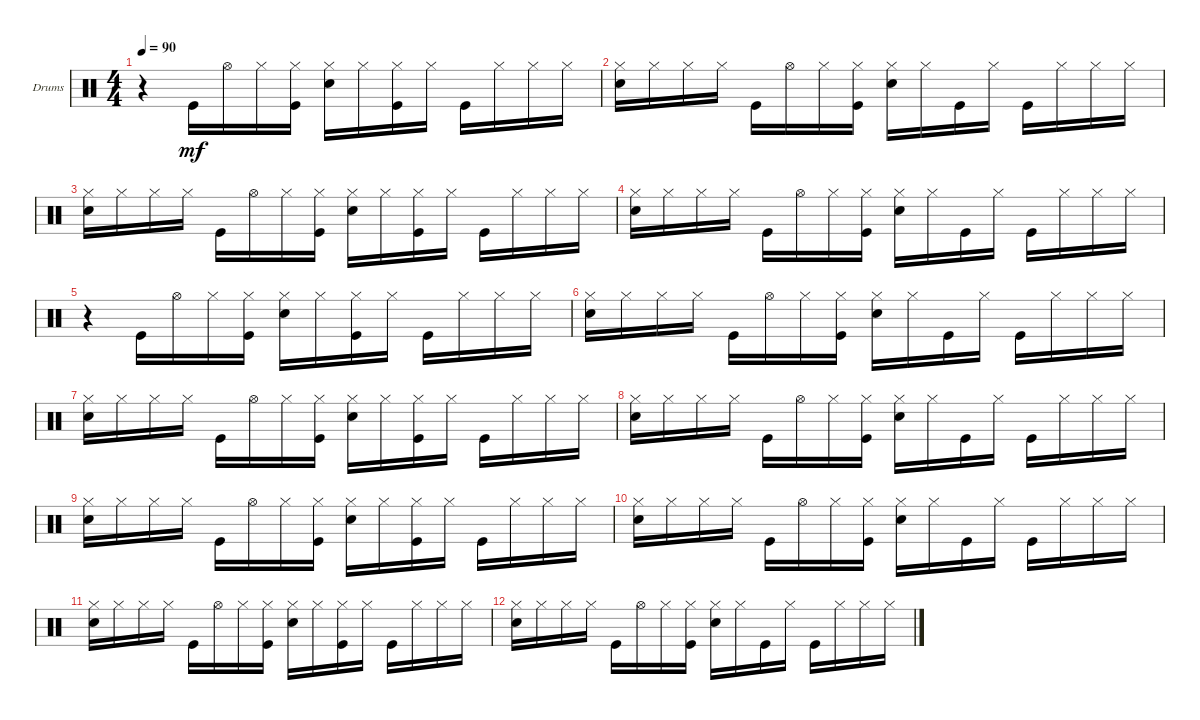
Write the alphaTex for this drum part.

\defaultSystemsLayout 4
\bracketExtendMode groupsimilarinstruments
\firstSystemTrackNameOrientation horizontal
\otherSystemsTrackNameOrientation horizontal
\track ("Drumkit" "Drums") {instrument percussion}
\staff {score}
\articulation defaults
\ts (4 4)
\tempo 90
\clef neutral
\scale
0.474178
\ks c
r.4{dy mf} "Kick (hit)".16 "Hi-Hat (open)".16 "Hi-Hat (closed)".16 ("Kick (hit)" "Hi-Hat (closed)").16 ("Snare (hit) 2" "Hi-Hat (closed)").16 "Hi-Hat (closed)".16 ("Kick (hit)" "Hi-Hat (closed)").16 "Hi-Hat (closed)".16 "Kick (hit)".16 "Hi-Hat (closed)".16 "Hi-Hat (closed)".16 "Hi-Hat (closed)".16 |
\scale
0.262911 ("Snare (hit) 2" "Hi-Hat (closed)").16 "Hi-Hat (closed)".16 "Hi-Hat (closed)".16 "Hi-Hat (closed)".16 "Kick (hit)".16 "Hi-Hat (open)".16 "Hi-Hat (closed)".16 ("Kick (hit)" "Hi-Hat (closed)").16 ("Snare (hit) 2" "Hi-Hat (closed)").16 "Hi-Hat (closed)".16 "Kick (hit)".16 "Hi-Hat (closed)".16 "Kick (hit)".16 "Hi-Hat (closed)".16 "Hi-Hat (closed)".16 "Hi-Hat (closed)".16 |
\scale
0.262911 ("Snare (hit) 2" "Hi-Hat (closed)").16 "Hi-Hat (closed)".16 "Hi-Hat (closed)".16 "Hi-Hat (closed)".16 "Kick (hit)".16 "Hi-Hat (open)".16 "Hi-Hat (closed)".16 ("Kick (hit)" "Hi-Hat (closed)").16 ("Snare (hit) 2" "Hi-Hat (closed)").16 "Hi-Hat (closed)".16 ("Kick (hit)" "Hi-Hat (closed)").16 "Hi-Hat (closed)".16 "Kick (hit)".16 "Hi-Hat (closed)".16 "Hi-Hat (closed)".16 "Hi-Hat (closed)".16 |
\scale
0.333333 ("Snare (hit) 2" "Hi-Hat (closed)").16 "Hi-Hat (closed)".16 "Hi-Hat (closed)".16 "Hi-Hat (closed)".16 "Kick (hit)".16 "Hi-Hat (open)".16 "Hi-Hat (closed)".16 ("Kick (hit)" "Hi-Hat (closed)").16 ("Snare (hit) 2" "Hi-Hat (closed)").16 "Hi-Hat (closed)".16 "Kick (hit)".16 "Hi-Hat (closed)".16 "Kick (hit)".16 "Hi-Hat (closed)".16 "Hi-Hat (closed)".16 "Hi-Hat (closed)".16 |
\scale
0.333333 r.4 "Kick (hit)".16 "Hi-Hat (open)".16 "Hi-Hat (closed)".16 ("Kick (hit)" "Hi-Hat (closed)").16 ("Snare (hit) 2" "Hi-Hat (closed)").16 "Hi-Hat (closed)".16 ("Kick (hit)" "Hi-Hat (closed)").16 "Hi-Hat (closed)".16 "Kick (hit)".16 "Hi-Hat (closed)".16 "Hi-Hat (closed)".16 "Hi-Hat (closed)".16 |
\scale
0.333333 ("Snare (hit) 2" "Hi-Hat (closed)").16 "Hi-Hat (closed)".16 "Hi-Hat (closed)".16 "Hi-Hat (closed)".16 "Kick (hit)".16 "Hi-Hat (open)".16 "Hi-Hat (closed)".16 ("Kick (hit)" "Hi-Hat (closed)").16 ("Snare (hit) 2" "Hi-Hat (closed)").16 "Hi-Hat (closed)".16 "Kick (hit)".16 "Hi-Hat (closed)".16 "Kick (hit)".16 "Hi-Hat (closed)".16 "Hi-Hat (closed)".16 "Hi-Hat (closed)".16 |
\scale
0.333333 ("Snare (hit) 2" "Hi-Hat (closed)").16 "Hi-Hat (closed)".16 "Hi-Hat (closed)".16 "Hi-Hat (closed)".16 "Kick (hit)".16 "Hi-Hat (open)".16 "Hi-Hat (closed)".16 ("Kick (hit)" "Hi-Hat (closed)").16 ("Snare (hit) 2" "Hi-Hat (closed)").16 "Hi-Hat (closed)".16 ("Kick (hit)" "Hi-Hat (closed)").16 "Hi-Hat (closed)".16 "Kick (hit)".16 "Hi-Hat (closed)".16 "Hi-Hat (closed)".16 "Hi-Hat (closed)".16 |
\scale
0.333333 ("Snare (hit) 2" "Hi-Hat (closed)").16 "Hi-Hat (closed)".16 "Hi-Hat (closed)".16 "Hi-Hat (closed)".16 "Kick (hit)".16 "Hi-Hat (open)".16 "Hi-Hat (closed)".16 ("Kick (hit)" "Hi-Hat (closed)").16 ("Snare (hit) 2" "Hi-Hat (closed)").16 "Hi-Hat (closed)".16 "Kick (hit)".16 "Hi-Hat (closed)".16 "Kick (hit)".16 "Hi-Hat (closed)".16 "Hi-Hat (closed)".16 "Hi-Hat (closed)".16 |
\scale
0.333333 ("Snare (hit) 2" "Hi-Hat (closed)").16 "Hi-Hat (closed)".16 "Hi-Hat (closed)".16 "Hi-Hat (closed)".16 "Kick (hit)".16 "Hi-Hat (open)".16 "Hi-Hat (closed)".16 ("Kick (hit)" "Hi-Hat (closed)").16 ("Snare (hit) 2" "Hi-Hat (closed)").16 "Hi-Hat (closed)".16 ("Kick (hit)" "Hi-Hat (closed)").16 "Hi-Hat (closed)".16 "Kick (hit)".16 "Hi-Hat (closed)".16 "Hi-Hat (closed)".16 "Hi-Hat (closed)".16 |
("Snare (hit) 2" "Hi-Hat (closed)").16 "Hi-Hat (closed)".16 "Hi-Hat (closed)".16 "Hi-Hat (closed)".16 "Kick (hit)".16 "Hi-Hat (open)".16 "Hi-Hat (closed)".16 ("Kick (hit)" "Hi-Hat (closed)").16 ("Snare (hit) 2" "Hi-Hat (closed)").16 "Hi-Hat (closed)".16 "Kick (hit)".16 "Hi-Hat (closed)".16 "Kick (hit)".16 "Hi-Hat (closed)".16 "Hi-Hat (closed)".16 "Hi-Hat (closed)".16 |
("Snare (hit) 2" "Hi-Hat (closed)").16 "Hi-Hat (closed)".16 "Hi-Hat (closed)".16 "Hi-Hat (closed)".16 "Kick (hit)".16 "Hi-Hat (open)".16 "Hi-Hat (closed)".16 ("Kick (hit)" "Hi-Hat (closed)").16 ("Snare (hit) 2" "Hi-Hat (closed)").16 "Hi-Hat (closed)".16 ("Kick (hit)" "Hi-Hat (closed)").16 "Hi-Hat (closed)".16 "Kick (hit)".16 "Hi-Hat (closed)".16 "Hi-Hat (closed)".16 "Hi-Hat (closed)".16 |
("Snare (hit) 2" "Hi-Hat (closed)").16 "Hi-Hat (closed)".16 "Hi-Hat (closed)".16 "Hi-Hat (closed)".16 "Kick (hit)".16 "Hi-Hat (open)".16 "Hi-Hat (closed)".16 ("Kick (hit)" "Hi-Hat (closed)").16 ("Snare (hit) 2" "Hi-Hat (closed)").16 "Hi-Hat (closed)".16 "Kick (hit)".16 "Hi-Hat (closed)".16 "Kick (hit)".16 "Hi-Hat (closed)".16 "Hi-Hat (closed)".16 "Hi-Hat (closed)".16
